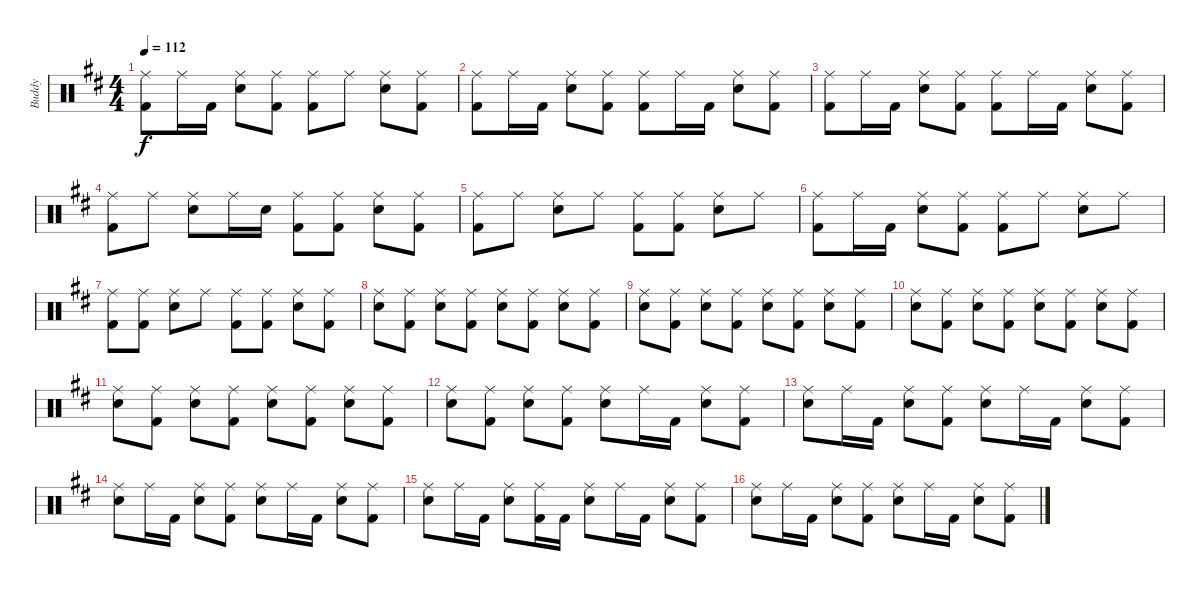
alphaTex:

\track ("Buddy " "Buddy ") {instrument percussion}
\staff {score}
\articulation defaults
\ts (4 4)
\tempo 112
\clef neutral
\ks d
("Ride (middle)" "Kick (hit) 2").8{dy f} "Ride (middle)".16 "Kick (hit) 2".16 ("Ride (middle)" "Snare (hit) 2").8 ("Ride (middle)" "Kick (hit) 2").8 ("Ride (middle)" "Kick (hit) 2").8 "Ride (middle)".8 ("Ride (middle)" "Snare (hit) 2").8 ("Ride (middle)" "Kick (hit) 2").8 |
("Ride (middle)" "Kick (hit) 2").8 "Ride (middle)".16 "Kick (hit) 2".16 ("Ride (middle)" "Snare (hit) 2").8 ("Ride (middle)" "Kick (hit) 2").8 ("Ride (middle)" "Kick (hit) 2").8 "Ride (middle)".16 "Kick (hit) 2".16 ("Ride (middle)" "Snare (hit) 2").8 ("Ride (middle)" "Kick (hit) 2").8 |
("Ride (middle)" "Kick (hit) 2").8 "Ride (middle)".16 "Kick (hit) 2".16 ("Ride (middle)" "Snare (hit) 2").8 ("Ride (middle)" "Kick (hit) 2").8 ("Ride (middle)" "Kick (hit) 2").8 "Ride (middle)".16 "Kick (hit) 2".16 ("Ride (middle)" "Snare (hit) 2").8 ("Ride (middle)" "Kick (hit) 2").8 |
("Ride (middle)" "Kick (hit) 2").8 "Ride (middle)".8 ("Ride (middle)" "Snare (hit) 2").8 "Ride (middle)".16 "Snare (hit) 2".16 ("Ride (middle)" "Kick (hit) 2").8 ("Ride (middle)" "Kick (hit) 2").8 ("Ride (middle)" "Snare (hit) 2").8 ("Ride (middle)" "Kick (hit) 2").8 |
("Ride (middle)" "Kick (hit) 2").8 "Ride (middle)".8 ("Ride (middle)" "Snare (hit) 2").8 "Ride (middle)".8 ("Ride (middle)" "Kick (hit) 2").8 ("Ride (middle)" "Kick (hit) 2").8 ("Ride (middle)" "Snare (hit) 2").8 "Ride (middle)".8 |
("Ride (middle)" "Kick (hit) 2").8 "Ride (middle)".16 "Kick (hit) 2".16 ("Ride (middle)" "Snare (hit) 2").8 ("Ride (middle)" "Kick (hit) 2").8 ("Ride (middle)" "Kick (hit) 2").8 "Ride (middle)".8 ("Ride (middle)" "Snare (hit) 2").8 "Ride (middle)".8 |
("Ride (middle)" "Kick (hit) 2").8 ("Ride (middle)" "Kick (hit) 2").8 ("Ride (middle)" "Snare (hit) 2").8 "Ride (middle)".8 ("Ride (middle)" "Kick (hit) 2").8 ("Ride (middle)" "Kick (hit) 2").8 ("Ride (middle)" "Snare (hit) 2").8 ("Ride (middle)" "Kick (hit) 2").8 |
("Ride (middle)" "Snare (hit) 2").8 ("Ride (middle)" "Kick (hit) 2").8 ("Ride (middle)" "Snare (hit) 2").8 ("Ride (middle)" "Kick (hit) 2").8 ("Ride (middle)" "Snare (hit) 2").8 ("Ride (middle)" "Kick (hit) 2").8 ("Ride (middle)" "Snare (hit) 2").8 ("Ride (middle)" "Kick (hit) 2").8 |
("Ride (middle)" "Snare (hit) 2").8 ("Ride (middle)" "Kick (hit) 2").8 ("Ride (middle)" "Snare (hit) 2").8 ("Ride (middle)" "Kick (hit) 2").8 ("Ride (middle)" "Snare (hit) 2").8 ("Ride (middle)" "Kick (hit) 2").8 ("Ride (middle)" "Snare (hit) 2").8 ("Ride (middle)" "Kick (hit) 2").8 |
("Ride (middle)" "Snare (hit) 2").8 ("Ride (middle)" "Kick (hit) 2").8 ("Ride (middle)" "Snare (hit) 2").8 ("Ride (middle)" "Kick (hit) 2").8 ("Ride (middle)" "Snare (hit) 2").8 ("Ride (middle)" "Kick (hit) 2").8 ("Ride (middle)" "Snare (hit) 2").8 ("Ride (middle)" "Kick (hit) 2").8 |
("Ride (middle)" "Snare (hit) 2").8 ("Ride (middle)" "Kick (hit) 2").8 ("Ride (middle)" "Snare (hit) 2").8 ("Ride (middle)" "Kick (hit) 2").8 ("Ride (middle)" "Snare (hit) 2").8 ("Ride (middle)" "Kick (hit) 2").8 ("Ride (middle)" "Snare (hit) 2").8 ("Ride (middle)" "Kick (hit) 2").8 |
("Ride (middle)" "Snare (hit) 2").8 ("Ride (middle)" "Kick (hit) 2").8 ("Ride (middle)" "Snare (hit) 2").8 ("Ride (middle)" "Kick (hit) 2").8 ("Ride (middle)" "Snare (hit) 2").8 "Ride (middle)".16 "Kick (hit) 2".16 ("Ride (middle)" "Snare (hit) 2").8 ("Ride (middle)" "Kick (hit) 2").8 |
("Ride (middle)" "Snare (hit) 2").8 "Ride (middle)".16 "Kick (hit) 2".16 ("Ride (middle)" "Snare (hit) 2").8 ("Ride (middle)" "Kick (hit) 2").8 ("Ride (middle)" "Snare (hit) 2").8 "Ride (middle)".16 "Kick (hit) 2".16 ("Ride (middle)" "Snare (hit) 2").8 ("Ride (middle)" "Kick (hit) 2").8 |
("Ride (middle)" "Snare (hit) 2").8 "Ride (middle)".16 "Kick (hit) 2".16 ("Ride (middle)" "Snare (hit) 2").8 ("Ride (middle)" "Kick (hit) 2").8 ("Ride (middle)" "Snare (hit) 2").8 "Ride (middle)".16 "Kick (hit) 2".16 ("Ride (middle)" "Snare (hit) 2").8 ("Ride (middle)" "Kick (hit) 2").8 |
("Ride (middle)" "Snare (hit) 2").8 "Ride (middle)".16 "Kick (hit) 2".16 ("Ride (middle)" "Snare (hit) 2").8 ("Ride (middle)" "Kick (hit) 2").16 "Kick (hit) 2".16 ("Ride (middle)" "Snare (hit) 2").8 "Ride (middle)".16 "Kick (hit) 2".16 ("Ride (middle)" "Snare (hit) 2").8 ("Ride (middle)" "Kick (hit) 2").8 |
("Ride (middle)" "Snare (hit) 2").8 "Ride (middle)".16 "Kick (hit) 2".16 ("Ride (middle)" "Snare (hit) 2").8 ("Ride (middle)" "Kick (hit) 2").8 ("Ride (middle)" "Snare (hit) 2").8 "Ride (middle)".16 "Kick (hit) 2".16 ("Ride (middle)" "Snare (hit) 2").8 ("Ride (middle)" "Kick (hit) 2").8
